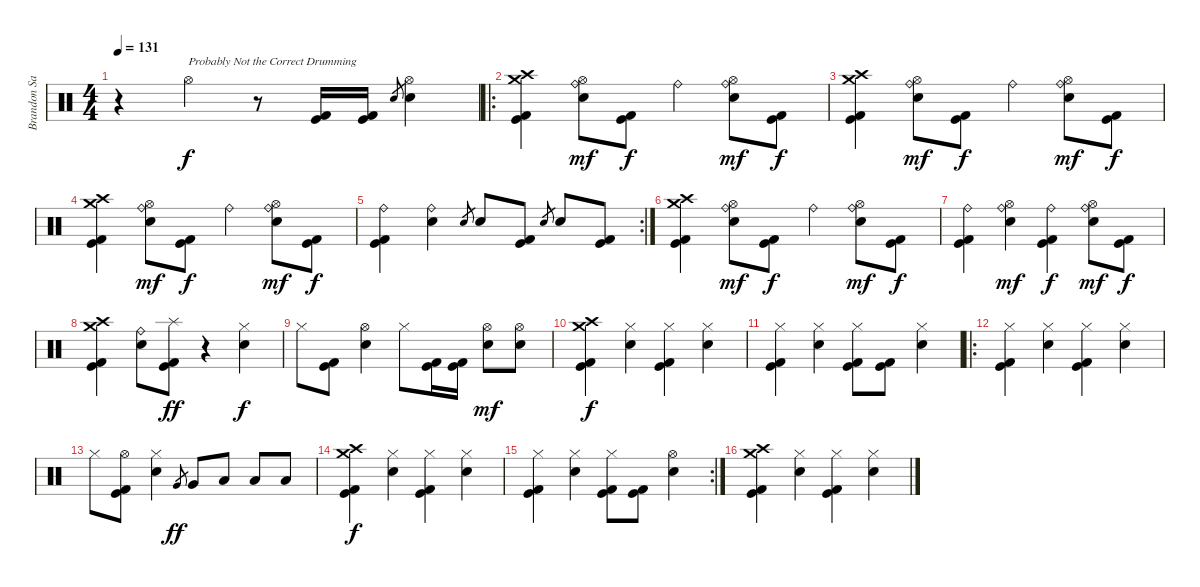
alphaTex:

\track ("Brandon Saller" "Brandon Sa") {instrument percussion}
\staff {score}
\articulation defaults
\ts (4 4)
\tempo 131
\clef neutral
\ks c
r.4{dy f} "Hi-Hat (open)".4{txt "Probably Not the Correct Drumming"} r.8 ("Kick (hit) 2" "Kick (hit)").16 ("Kick (hit) 2" "Kick (hit)").16 "Electric Snare (hit)".8{gr} ("Hi-Hat (open)" "Electric Snare (hit)").4 |
\ro
("Crash medium (hit)" "Crash high (hit)" "Kick (hit) 2" "Kick (hit)").4 ("Ride (bell)" "Hi-Hat (open)" "Electric Snare (hit)").8{dy mf} ("Kick (hit)" "Kick (hit) 2").8{dy f} "Ride (bell)".4 ("Ride (bell)" "Hi-Hat (open)" "Electric Snare (hit)").8{dy mf} ("Kick (hit) 2" "Kick (hit)").8{dy f} |
("Crash medium (hit)" "Crash high (hit)" "Kick (hit) 2" "Kick (hit)").4 ("Ride (bell)" "Hi-Hat (open)" "Electric Snare (hit)").8{dy mf} ("Kick (hit)" "Kick (hit) 2").8{dy f} "Ride (bell)".4 ("Ride (bell)" "Hi-Hat (open)" "Electric Snare (hit)").8{dy mf} ("Kick (hit) 2" "Kick (hit)").8{dy f} |
("Crash medium (hit)" "Crash high (hit)" "Kick (hit) 2" "Kick (hit)").4 ("Ride (bell)" "Hi-Hat (open)" "Electric Snare (hit)").8{dy mf} ("Kick (hit)" "Kick (hit) 2").8{dy f} "Ride (bell)".4 ("Ride (bell)" "Hi-Hat (open)" "Electric Snare (hit)").8{dy mf} ("Kick (hit) 2" "Kick (hit)").8{dy f} |
\rc 2
("Ride (bell)" "Kick (hit) 2" "Kick (hit)").4 ("Ride (bell)" "Electric Snare (hit)").4 "Electric Snare (hit)".8{gr} "Electric Snare (hit)".8 ("Kick (hit) 2" "Kick (hit)").8 "Electric Snare (hit)".8{gr} "Electric Snare (hit)".8 ("Kick (hit) 2" "Kick (hit)").8 |
("Crash medium (hit)" "Crash high (hit)" "Kick (hit) 2" "Kick (hit)").4 ("Ride (bell)" "Hi-Hat (open)" "Electric Snare (hit)").8{dy mf} ("Kick (hit)" "Kick (hit) 2").8{dy f} "Ride (bell)".4 ("Ride (bell)" "Hi-Hat (open)" "Electric Snare (hit)").8{dy mf} ("Kick (hit) 2" "Kick (hit)").8{dy f} |
("Ride (bell)" "Kick (hit) 2" "Kick (hit)").4 ("Ride (bell)" "Hi-Hat (open)" "Electric Snare (hit)").4{dy mf} ("Ride (bell)" "Kick (hit) 2" "Kick (hit)").4{dy f} ("Ride (bell)" "Hi-Hat (open)" "Electric Snare (hit)").8{dy mf} ("Kick (hit) 2" "Kick (hit)").8{dy f} |
("Crash medium (hit)" "Crash high (hit)" "Kick (hit) 2" "Kick (hit)").4 ("Ride (bell)" "Electric Snare (hit)").8 ("Splash (hit)" "Kick (hit) 2" "Kick (hit)").8{dy ff} r.4 ("Hi-Hat (closed)" "Electric Snare (hit)").4{dy f} |
"Hi-Hat (closed)".8 ("Kick (hit) 2" "Kick (hit)").8 ("Hi-Hat (open)" "Electric Snare (hit)").4 "Hi-Hat (closed)".8 ("Kick (hit) 2" "Kick (hit)").16 ("Kick (hit) 2" "Kick (hit)").16 ("Hi-Hat (open)" "Electric Snare (hit)").8{dy mf} ("Hi-Hat (open)" "Electric Snare (hit)").8 |
("Crash medium (hit)" "Crash high (hit)" "Kick (hit) 2" "Kick (hit)").4{dy f} ("Hi-Hat (closed)" "Electric Snare (hit)").4 ("Hi-Hat (closed)" "Kick (hit) 2" "Kick (hit)").4 ("Hi-Hat (closed)" "Electric Snare (hit)").4 |
("Hi-Hat (closed)" "Kick (hit) 2" "Kick (hit)").4 ("Hi-Hat (closed)" "Electric Snare (hit)").4 ("Hi-Hat (closed)" "Kick (hit) 2" "Kick (hit)").8 ("Kick (hit) 2" "Kick (hit)").8 ("Hi-Hat (closed)" "Electric Snare (hit)").4 |
\ro
("Hi-Hat (closed)" "Kick (hit) 2" "Kick (hit)").4 ("Hi-Hat (closed)" "Electric Snare (hit)").4 ("Hi-Hat (closed)" "Kick (hit) 2" "Kick (hit)").4 ("Hi-Hat (closed)" "Electric Snare (hit)").4 |
"Hi-Hat (closed)".8 ("Hi-Hat (open)" "Kick (hit) 2" "Kick (hit)").8 ("Hi-Hat (closed)" "Electric Snare (hit)").4 "Very Low Tom (hit)".8{gr dy ff} "Very Low Tom (hit)".8 "Low Tom (hit)".8 "Low Tom (hit)".8 "Low Floor Tom (hit)".8 |
("Crash medium (hit)" "Crash high (hit)" "Kick (hit) 2" "Kick (hit)").4{dy f} ("Hi-Hat (closed)" "Electric Snare (hit)").4 ("Hi-Hat (closed)" "Kick (hit) 2" "Kick (hit)").4 ("Hi-Hat (closed)" "Electric Snare (hit)").4 |
\rc 2
("Hi-Hat (closed)" "Kick (hit) 2" "Kick (hit)").4 ("Hi-Hat (closed)" "Electric Snare (hit)").4 ("Hi-Hat (closed)" "Kick (hit) 2" "Kick (hit)").8 ("Kick (hit) 2" "Kick (hit)").8 ("Hi-Hat (open)" "Electric Snare (hit)").4 |
("Crash medium (hit)" "Crash high (hit)" "Kick (hit) 2" "Kick (hit)").4 ("Hi-Hat (closed)" "Electric Snare (hit)").4 ("Hi-Hat (closed)" "Kick (hit) 2" "Kick (hit)").4 ("Hi-Hat (closed)" "Electric Snare (hit)").4
